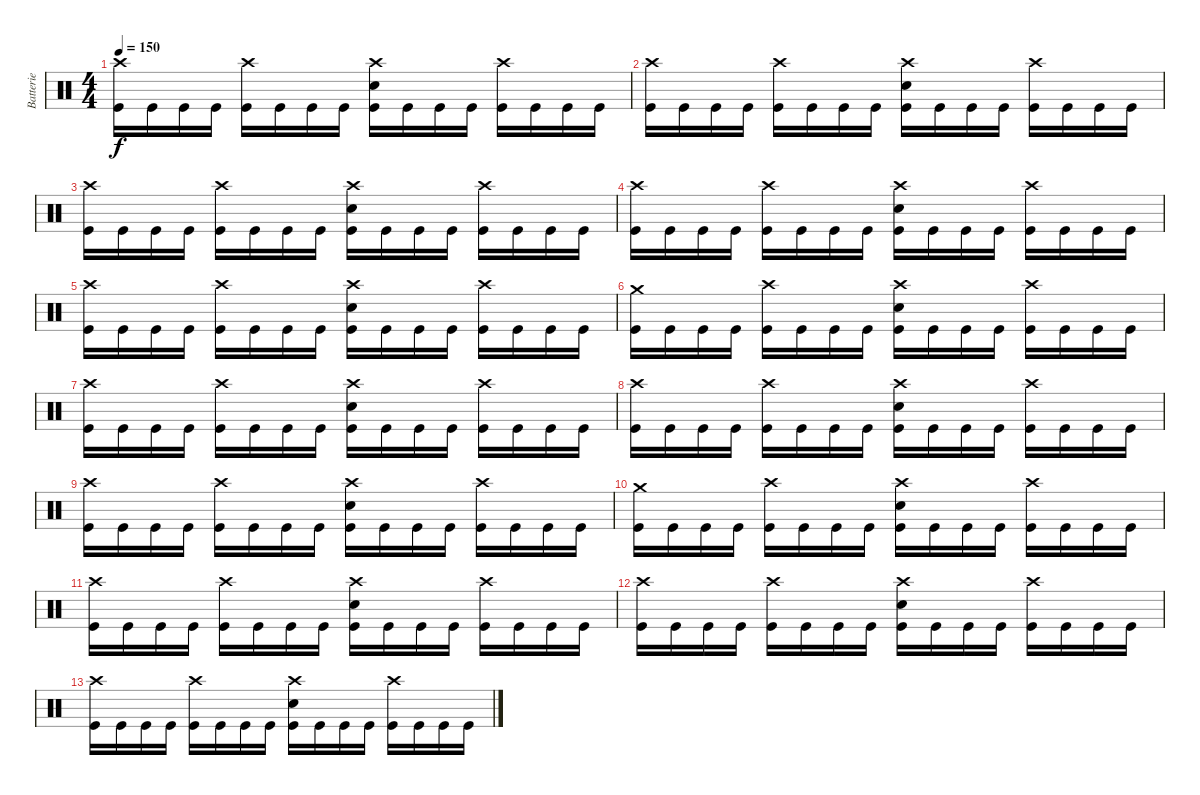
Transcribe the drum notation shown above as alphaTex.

\track ("Batterie" "Batterie") {instrument percussion}
\staff {score}
\articulation defaults
\ts (4 4)
\tempo 150
\clef neutral
\ks c
("Crash high (hit)" "Kick (hit)").16{dy f} "Kick (hit)".16 "Kick (hit)".16 "Kick (hit)".16 ("Crash high (hit)" "Kick (hit)").16 "Kick (hit)".16 "Kick (hit)".16 "Kick (hit)".16 ("Crash high (hit)" "Electric Snare (hit)" "Kick (hit)").16 "Kick (hit)".16 "Kick (hit)".16 "Kick (hit)".16 ("Crash high (hit)" "Kick (hit)").16 "Kick (hit)".16 "Kick (hit)".16 "Kick (hit)".16 |
("Crash high (hit)" "Kick (hit)").16 "Kick (hit)".16 "Kick (hit)".16 "Kick (hit)".16 ("Crash high (hit)" "Kick (hit)").16 "Kick (hit)".16 "Kick (hit)".16 "Kick (hit)".16 ("Crash high (hit)" "Electric Snare (hit)" "Kick (hit)").16 "Kick (hit)".16 "Kick (hit)".16 "Kick (hit)".16 ("Crash high (hit)" "Kick (hit)").16 "Kick (hit)".16 "Kick (hit)".16 "Kick (hit)".16 |
("Crash high (hit)" "Kick (hit)").16 "Kick (hit)".16 "Kick (hit)".16 "Kick (hit)".16 ("Crash high (hit)" "Kick (hit)").16 "Kick (hit)".16 "Kick (hit)".16 "Kick (hit)".16 ("Crash high (hit)" "Electric Snare (hit)" "Kick (hit)").16 "Kick (hit)".16 "Kick (hit)".16 "Kick (hit)".16 ("Crash high (hit)" "Kick (hit)").16 "Kick (hit)".16 "Kick (hit)".16 "Kick (hit)".16 |
("Crash high (hit)" "Kick (hit)").16 "Kick (hit)".16 "Kick (hit)".16 "Kick (hit)".16 ("Crash high (hit)" "Kick (hit)").16 "Kick (hit)".16 "Kick (hit)".16 "Kick (hit)".16 ("Crash high (hit)" "Electric Snare (hit)" "Kick (hit)").16 "Kick (hit)".16 "Kick (hit)".16 "Kick (hit)".16 ("Crash high (hit)" "Kick (hit)").16 "Kick (hit)".16 "Kick (hit)".16 "Kick (hit)".16 |
("Crash high (hit)" "Kick (hit)").16 "Kick (hit)".16 "Kick (hit)".16 "Kick (hit)".16 ("Crash high (hit)" "Kick (hit)").16 "Kick (hit)".16 "Kick (hit)".16 "Kick (hit)".16 ("Crash high (hit)" "Electric Snare (hit)" "Kick (hit)").16 "Kick (hit)".16 "Kick (hit)".16 "Kick (hit)".16 ("Crash high (hit)" "Kick (hit)").16 "Kick (hit)".16 "Kick (hit)".16 "Kick (hit)".16 |
("Crash medium (hit)" "Kick (hit)").16 "Kick (hit)".16 "Kick (hit)".16 "Kick (hit)".16 ("Crash high (hit)" "Kick (hit)").16 "Kick (hit)".16 "Kick (hit)".16 "Kick (hit)".16 ("Crash high (hit)" "Electric Snare (hit)" "Kick (hit)").16 "Kick (hit)".16 "Kick (hit)".16 "Kick (hit)".16 ("Crash high (hit)" "Kick (hit)").16 "Kick (hit)".16 "Kick (hit)".16 "Kick (hit)".16 |
("Crash high (hit)" "Kick (hit)").16 "Kick (hit)".16 "Kick (hit)".16 "Kick (hit)".16 ("Crash high (hit)" "Kick (hit)").16 "Kick (hit)".16 "Kick (hit)".16 "Kick (hit)".16 ("Crash high (hit)" "Electric Snare (hit)" "Kick (hit)").16 "Kick (hit)".16 "Kick (hit)".16 "Kick (hit)".16 ("Crash high (hit)" "Kick (hit)").16 "Kick (hit)".16 "Kick (hit)".16 "Kick (hit)".16 |
("Crash high (hit)" "Kick (hit)").16 "Kick (hit)".16 "Kick (hit)".16 "Kick (hit)".16 ("Crash high (hit)" "Kick (hit)").16 "Kick (hit)".16 "Kick (hit)".16 "Kick (hit)".16 ("Crash high (hit)" "Electric Snare (hit)" "Kick (hit)").16 "Kick (hit)".16 "Kick (hit)".16 "Kick (hit)".16 ("Crash high (hit)" "Kick (hit)").16 "Kick (hit)".16 "Kick (hit)".16 "Kick (hit)".16 |
("Crash high (hit)" "Kick (hit)").16 "Kick (hit)".16 "Kick (hit)".16 "Kick (hit)".16 ("Crash high (hit)" "Kick (hit)").16 "Kick (hit)".16 "Kick (hit)".16 "Kick (hit)".16 ("Crash high (hit)" "Electric Snare (hit)" "Kick (hit)").16 "Kick (hit)".16 "Kick (hit)".16 "Kick (hit)".16 ("Crash high (hit)" "Kick (hit)").16 "Kick (hit)".16 "Kick (hit)".16 "Kick (hit)".16 |
("Crash medium (hit)" "Kick (hit)").16 "Kick (hit)".16 "Kick (hit)".16 "Kick (hit)".16 ("Crash high (hit)" "Kick (hit)").16 "Kick (hit)".16 "Kick (hit)".16 "Kick (hit)".16 ("Crash high (hit)" "Electric Snare (hit)" "Kick (hit)").16 "Kick (hit)".16 "Kick (hit)".16 "Kick (hit)".16 ("Crash high (hit)" "Kick (hit)").16 "Kick (hit)".16 "Kick (hit)".16 "Kick (hit)".16 |
("Crash high (hit)" "Kick (hit)").16 "Kick (hit)".16 "Kick (hit)".16 "Kick (hit)".16 ("Crash high (hit)" "Kick (hit)").16 "Kick (hit)".16 "Kick (hit)".16 "Kick (hit)".16 ("Crash high (hit)" "Electric Snare (hit)" "Kick (hit)").16 "Kick (hit)".16 "Kick (hit)".16 "Kick (hit)".16 ("Crash high (hit)" "Kick (hit)").16 "Kick (hit)".16 "Kick (hit)".16 "Kick (hit)".16 |
("Crash high (hit)" "Kick (hit)").16 "Kick (hit)".16 "Kick (hit)".16 "Kick (hit)".16 ("Crash high (hit)" "Kick (hit)").16 "Kick (hit)".16 "Kick (hit)".16 "Kick (hit)".16 ("Crash high (hit)" "Electric Snare (hit)" "Kick (hit)").16 "Kick (hit)".16 "Kick (hit)".16 "Kick (hit)".16 ("Crash high (hit)" "Kick (hit)").16 "Kick (hit)".16 "Kick (hit)".16 "Kick (hit)".16 |
("Crash high (hit)" "Kick (hit)").16 "Kick (hit)".16 "Kick (hit)".16 "Kick (hit)".16 ("Crash high (hit)" "Kick (hit)").16 "Kick (hit)".16 "Kick (hit)".16 "Kick (hit)".16 ("Crash high (hit)" "Electric Snare (hit)" "Kick (hit)").16 "Kick (hit)".16 "Kick (hit)".16 "Kick (hit)".16 ("Crash high (hit)" "Kick (hit)").16 "Kick (hit)".16 "Kick (hit)".16 "Kick (hit)".16
